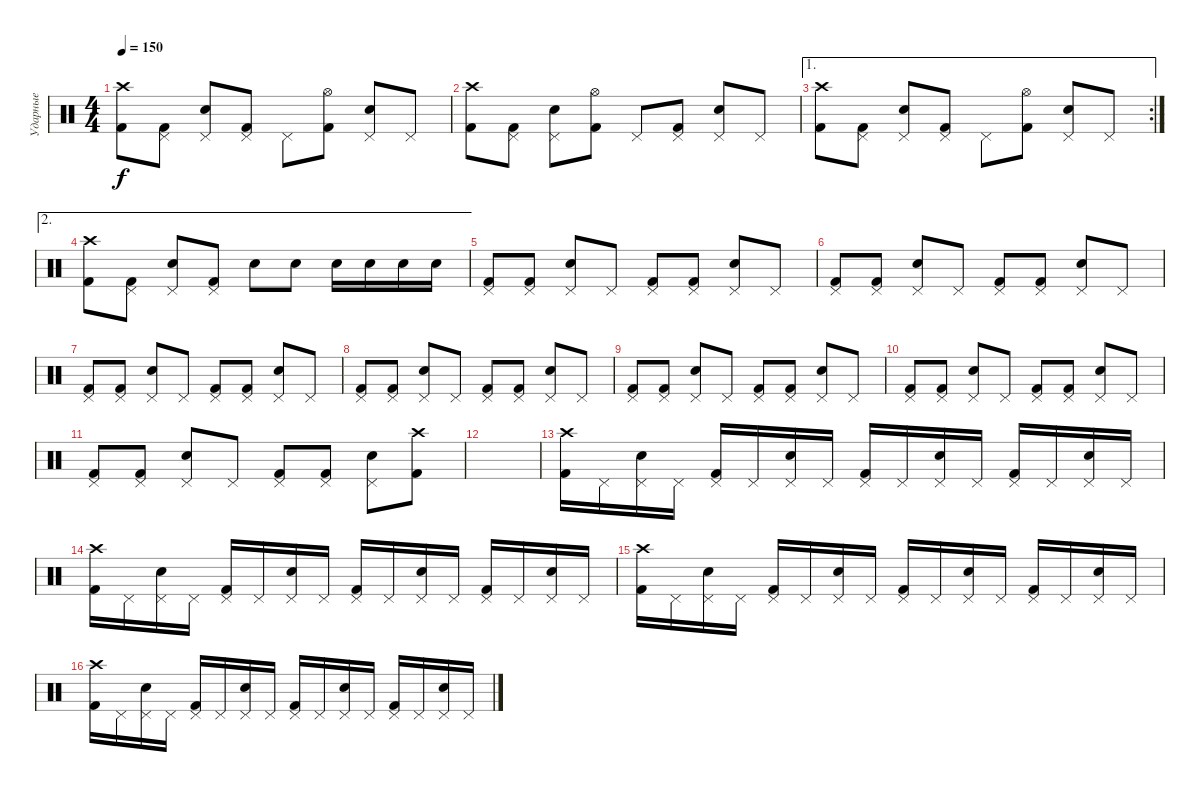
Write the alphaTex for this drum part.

\track ("Ударные" "Ударные") {instrument percussion}
\staff {score}
\articulation defaults
\ts (4 4)
\tempo 150
\clef neutral
\ks c
("Kick (hit) 2" "Crash high (hit)").8{dy f} ("Kick (hit) 2" "Pedal Hi-Hat (hit)").8 ("Electric Snare (hit)" "Pedal Hi-Hat (hit)").8 ("Kick (hit) 2" "Pedal Hi-Hat (hit)").8 "Pedal Hi-Hat (hit)".8 ("Kick (hit) 2" "Hi-Hat (open)").8 ("Electric Snare (hit)" "Pedal Hi-Hat (hit)").8 "Pedal Hi-Hat (hit)".8 |
("Kick (hit) 2" "Crash high (hit)").8 ("Kick (hit) 2" "Pedal Hi-Hat (hit)").8 ("Electric Snare (hit)" "Pedal Hi-Hat (hit)").8 ("Kick (hit) 2" "Hi-Hat (open)").8 "Pedal Hi-Hat (hit)".8 ("Kick (hit) 2" "Pedal Hi-Hat (hit)").8 ("Electric Snare (hit)" "Pedal Hi-Hat (hit)").8 "Pedal Hi-Hat (hit)".8 |
\ae 1
\rc 2
("Kick (hit) 2" "Crash high (hit)").8 ("Kick (hit) 2" "Pedal Hi-Hat (hit)").8 ("Electric Snare (hit)" "Pedal Hi-Hat (hit)").8 ("Kick (hit) 2" "Pedal Hi-Hat (hit)").8 "Pedal Hi-Hat (hit)".8 ("Kick (hit) 2" "Hi-Hat (open)").8 ("Electric Snare (hit)" "Pedal Hi-Hat (hit)").8 "Pedal Hi-Hat (hit)".8 |
\ae 2
("Kick (hit) 2" "Crash high (hit)").8 ("Kick (hit) 2" "Pedal Hi-Hat (hit)").8 ("Electric Snare (hit)" "Pedal Hi-Hat (hit)").8 ("Kick (hit) 2" "Pedal Hi-Hat (hit)").8 "Electric Snare (hit)".8 "Electric Snare (hit)".8 "Electric Snare (hit)".16 "Electric Snare (hit)".16 "Electric Snare (hit)".16 "Electric Snare (hit)".16 |
("Kick (hit) 2" "Pedal Hi-Hat (hit)").8 ("Kick (hit) 2" "Pedal Hi-Hat (hit)").8 ("Electric Snare (hit)" "Pedal Hi-Hat (hit)").8 "Pedal Hi-Hat (hit)".8 ("Kick (hit) 2" "Pedal Hi-Hat (hit)").8 ("Kick (hit) 2" "Pedal Hi-Hat (hit)").8 ("Electric Snare (hit)" "Pedal Hi-Hat (hit)").8 "Pedal Hi-Hat (hit)".8 |
("Kick (hit) 2" "Pedal Hi-Hat (hit)").8 ("Kick (hit) 2" "Pedal Hi-Hat (hit)").8 ("Electric Snare (hit)" "Pedal Hi-Hat (hit)").8 "Pedal Hi-Hat (hit)".8 ("Kick (hit) 2" "Pedal Hi-Hat (hit)").8 ("Kick (hit) 2" "Pedal Hi-Hat (hit)").8 ("Electric Snare (hit)" "Pedal Hi-Hat (hit)").8 "Pedal Hi-Hat (hit)".8 |
("Kick (hit) 2" "Pedal Hi-Hat (hit)").8 ("Kick (hit) 2" "Pedal Hi-Hat (hit)").8 ("Electric Snare (hit)" "Pedal Hi-Hat (hit)").8 "Pedal Hi-Hat (hit)".8 ("Kick (hit) 2" "Pedal Hi-Hat (hit)").8 ("Kick (hit) 2" "Pedal Hi-Hat (hit)").8 ("Electric Snare (hit)" "Pedal Hi-Hat (hit)").8 "Pedal Hi-Hat (hit)".8 |
("Kick (hit) 2" "Pedal Hi-Hat (hit)").8 ("Kick (hit) 2" "Pedal Hi-Hat (hit)").8 ("Electric Snare (hit)" "Pedal Hi-Hat (hit)").8 "Pedal Hi-Hat (hit)".8 ("Kick (hit) 2" "Pedal Hi-Hat (hit)").8 ("Kick (hit) 2" "Pedal Hi-Hat (hit)").8 ("Electric Snare (hit)" "Pedal Hi-Hat (hit)").8 "Pedal Hi-Hat (hit)".8 |
("Kick (hit) 2" "Pedal Hi-Hat (hit)").8 ("Kick (hit) 2" "Pedal Hi-Hat (hit)").8 ("Electric Snare (hit)" "Pedal Hi-Hat (hit)").8 "Pedal Hi-Hat (hit)".8 ("Kick (hit) 2" "Pedal Hi-Hat (hit)").8 ("Kick (hit) 2" "Pedal Hi-Hat (hit)").8 ("Electric Snare (hit)" "Pedal Hi-Hat (hit)").8 "Pedal Hi-Hat (hit)".8 |
("Kick (hit) 2" "Pedal Hi-Hat (hit)").8 ("Kick (hit) 2" "Pedal Hi-Hat (hit)").8 ("Electric Snare (hit)" "Pedal Hi-Hat (hit)").8 "Pedal Hi-Hat (hit)".8 ("Kick (hit) 2" "Pedal Hi-Hat (hit)").8 ("Kick (hit) 2" "Pedal Hi-Hat (hit)").8 ("Electric Snare (hit)" "Pedal Hi-Hat (hit)").8 "Pedal Hi-Hat (hit)".8 |
("Kick (hit) 2" "Pedal Hi-Hat (hit)").8 ("Kick (hit) 2" "Pedal Hi-Hat (hit)").8 ("Electric Snare (hit)" "Pedal Hi-Hat (hit)").8 "Pedal Hi-Hat (hit)".8 ("Kick (hit) 2" "Pedal Hi-Hat (hit)").8 ("Kick (hit) 2" "Pedal Hi-Hat (hit)").8 ("Electric Snare (hit)" "Pedal Hi-Hat (hit)").8 ("Kick (hit) 2" "Crash high (hit)").8 |
|
("Kick (hit) 2" "Crash high (hit)").16 "Pedal Hi-Hat (hit)".16 ("Electric Snare (hit)" "Pedal Hi-Hat (hit)").16 "Pedal Hi-Hat (hit)".16 ("Kick (hit) 2" "Pedal Hi-Hat (hit)").16 "Pedal Hi-Hat (hit)".16 ("Electric Snare (hit)" "Pedal Hi-Hat (hit)").16 "Pedal Hi-Hat (hit)".16 ("Kick (hit) 2" "Pedal Hi-Hat (hit)").16 "Pedal Hi-Hat (hit)".16 ("Electric Snare (hit)" "Pedal Hi-Hat (hit)").16 "Pedal Hi-Hat (hit)".16 ("Kick (hit) 2" "Pedal Hi-Hat (hit)").16 "Pedal Hi-Hat (hit)".16 ("Electric Snare (hit)" "Pedal Hi-Hat (hit)").16 "Pedal Hi-Hat (hit)".16 |
("Kick (hit) 2" "Crash high (hit)").16 "Pedal Hi-Hat (hit)".16 ("Electric Snare (hit)" "Pedal Hi-Hat (hit)").16 "Pedal Hi-Hat (hit)".16 ("Kick (hit) 2" "Pedal Hi-Hat (hit)").16 "Pedal Hi-Hat (hit)".16 ("Electric Snare (hit)" "Pedal Hi-Hat (hit)").16 "Pedal Hi-Hat (hit)".16 ("Kick (hit) 2" "Pedal Hi-Hat (hit)").16 "Pedal Hi-Hat (hit)".16 ("Electric Snare (hit)" "Pedal Hi-Hat (hit)").16 "Pedal Hi-Hat (hit)".16 ("Kick (hit) 2" "Pedal Hi-Hat (hit)").16 "Pedal Hi-Hat (hit)".16 ("Electric Snare (hit)" "Pedal Hi-Hat (hit)").16 "Pedal Hi-Hat (hit)".16 |
("Kick (hit) 2" "Crash high (hit)").16 "Pedal Hi-Hat (hit)".16 ("Electric Snare (hit)" "Pedal Hi-Hat (hit)").16 "Pedal Hi-Hat (hit)".16 ("Kick (hit) 2" "Pedal Hi-Hat (hit)").16 "Pedal Hi-Hat (hit)".16 ("Electric Snare (hit)" "Pedal Hi-Hat (hit)").16 "Pedal Hi-Hat (hit)".16 ("Kick (hit) 2" "Pedal Hi-Hat (hit)").16 "Pedal Hi-Hat (hit)".16 ("Electric Snare (hit)" "Pedal Hi-Hat (hit)").16 "Pedal Hi-Hat (hit)".16 ("Kick (hit) 2" "Pedal Hi-Hat (hit)").16 "Pedal Hi-Hat (hit)".16 ("Electric Snare (hit)" "Pedal Hi-Hat (hit)").16 "Pedal Hi-Hat (hit)".16 |
("Kick (hit) 2" "Crash high (hit)").16 "Pedal Hi-Hat (hit)".16 ("Electric Snare (hit)" "Pedal Hi-Hat (hit)").16 "Pedal Hi-Hat (hit)".16 ("Kick (hit) 2" "Pedal Hi-Hat (hit)").16 "Pedal Hi-Hat (hit)".16 ("Electric Snare (hit)" "Pedal Hi-Hat (hit)").16 "Pedal Hi-Hat (hit)".16 ("Kick (hit) 2" "Pedal Hi-Hat (hit)").16 "Pedal Hi-Hat (hit)".16 ("Electric Snare (hit)" "Pedal Hi-Hat (hit)").16 "Pedal Hi-Hat (hit)".16 ("Kick (hit) 2" "Pedal Hi-Hat (hit)").16 "Pedal Hi-Hat (hit)".16 ("Electric Snare (hit)" "Pedal Hi-Hat (hit)").16 "Pedal Hi-Hat (hit)".16
